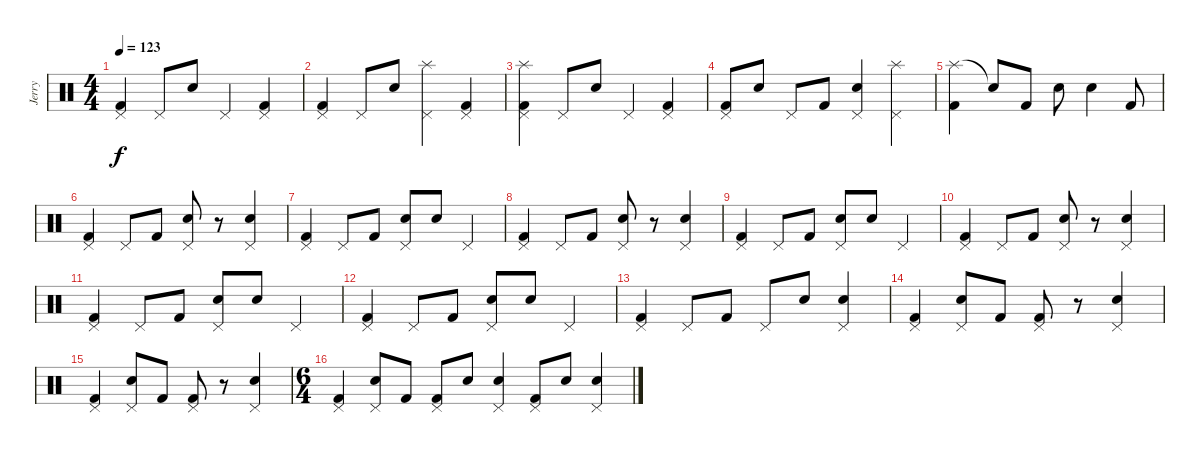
\track ("Jerry" "Jerry") {instrument percussion}
\staff {score}
\articulation defaults
\ts (4 4)
\tempo 123
\clef neutral
\ks c
("Pedal Hi-Hat (hit)" "Kick (hit) 2").4{dy f} "Pedal Hi-Hat (hit)".8 "Snare (hit) 2".8 "Pedal Hi-Hat (hit)".4 ("Pedal Hi-Hat (hit)" "Kick (hit) 2").4 |
("Pedal Hi-Hat (hit)" "Kick (hit) 2").4 "Pedal Hi-Hat (hit)".8 "Snare (hit) 2".8 ("Pedal Hi-Hat (hit)" "Splash (hit)").4 ("Pedal Hi-Hat (hit)" "Kick (hit) 2").4 |
("Pedal Hi-Hat (hit)" "Splash (hit)" "Kick (hit) 2").4 "Pedal Hi-Hat (hit)".8 "Snare (hit) 2".8 "Pedal Hi-Hat (hit)".4 ("Pedal Hi-Hat (hit)" "Kick (hit) 2").4 |
("Pedal Hi-Hat (hit)" "Kick (hit) 2").8 "Snare (hit) 2".8 "Pedal Hi-Hat (hit)".8 "Kick (hit) 2".8 ("Pedal Hi-Hat (hit)" "Snare (hit) 2").4 ("Pedal Hi-Hat (hit)" "Splash (hit)").4 |
("Splash (hit)" "Kick (hit) 2").4 "Snare (hit)"{t}.8 "Kick (hit) 2".8 "Snare (hit) 2".8 "Snare (hit) 2".4 "Kick (hit) 2".8 |
("Pedal Hi-Hat (hit)" "Kick (hit) 2").4 "Pedal Hi-Hat (hit)".8 "Kick (hit) 2".8 ("Pedal Hi-Hat (hit)" "Snare (hit) 2").8 r.8 ("Pedal Hi-Hat (hit)" "Snare (hit) 2").4 |
("Pedal Hi-Hat (hit)" "Kick (hit) 2").4 "Pedal Hi-Hat (hit)".8 "Kick (hit) 2".8 ("Pedal Hi-Hat (hit)" "Snare (hit) 2").8 "Snare (hit) 2".8 "Pedal Hi-Hat (hit)".4 |
("Pedal Hi-Hat (hit)" "Kick (hit) 2").4 "Pedal Hi-Hat (hit)".8 "Kick (hit) 2".8 ("Pedal Hi-Hat (hit)" "Snare (hit) 2").8 r.8 ("Pedal Hi-Hat (hit)" "Snare (hit) 2").4 |
("Pedal Hi-Hat (hit)" "Kick (hit) 2").4 "Pedal Hi-Hat (hit)".8 "Kick (hit) 2".8 ("Pedal Hi-Hat (hit)" "Snare (hit) 2").8 "Snare (hit) 2".8 "Pedal Hi-Hat (hit)".4 |
("Pedal Hi-Hat (hit)" "Kick (hit) 2").4 "Pedal Hi-Hat (hit)".8 "Kick (hit) 2".8 ("Pedal Hi-Hat (hit)" "Snare (hit) 2").8 r.8 ("Pedal Hi-Hat (hit)" "Snare (hit) 2").4 |
("Pedal Hi-Hat (hit)" "Kick (hit) 2").4 "Pedal Hi-Hat (hit)".8 "Kick (hit) 2".8 ("Pedal Hi-Hat (hit)" "Snare (hit) 2").8 "Snare (hit) 2".8 "Pedal Hi-Hat (hit)".4 |
("Pedal Hi-Hat (hit)" "Kick (hit) 2").4 "Pedal Hi-Hat (hit)".8 "Kick (hit) 2".8 ("Pedal Hi-Hat (hit)" "Snare (hit) 2").8 "Snare (hit) 2".8 "Pedal Hi-Hat (hit)".4 |
("Pedal Hi-Hat (hit)" "Kick (hit) 2").4 "Pedal Hi-Hat (hit)".8 "Kick (hit) 2".8 "Pedal Hi-Hat (hit)".8 "Snare (hit) 2".8 ("Pedal Hi-Hat (hit)" "Snare (hit) 2").4 |
("Pedal Hi-Hat (hit)" "Kick (hit) 2").4 ("Pedal Hi-Hat (hit)" "Snare (hit) 2").8 "Kick (hit) 2".8 ("Pedal Hi-Hat (hit)" "Kick (hit) 2").8 r.8 ("Pedal Hi-Hat (hit)" "Snare (hit) 2").4 |
("Pedal Hi-Hat (hit)" "Kick (hit) 2").4 ("Pedal Hi-Hat (hit)" "Snare (hit) 2").8 "Kick (hit) 2".8 ("Pedal Hi-Hat (hit)" "Kick (hit) 2").8 r.8 ("Pedal Hi-Hat (hit)" "Snare (hit) 2").4 |
\ts (6 4)
("Pedal Hi-Hat (hit)" "Kick (hit) 2").4 ("Pedal Hi-Hat (hit)" "Snare (hit) 2").8 "Kick (hit) 2".8 ("Pedal Hi-Hat (hit)" "Kick (hit) 2").8 "Snare (hit) 2".8 ("Pedal Hi-Hat (hit)" "Snare (hit) 2").4 ("Pedal Hi-Hat (hit)" "Kick (hit) 2").8 "Snare (hit) 2".8 ("Pedal Hi-Hat (hit)" "Snare (hit) 2").4
